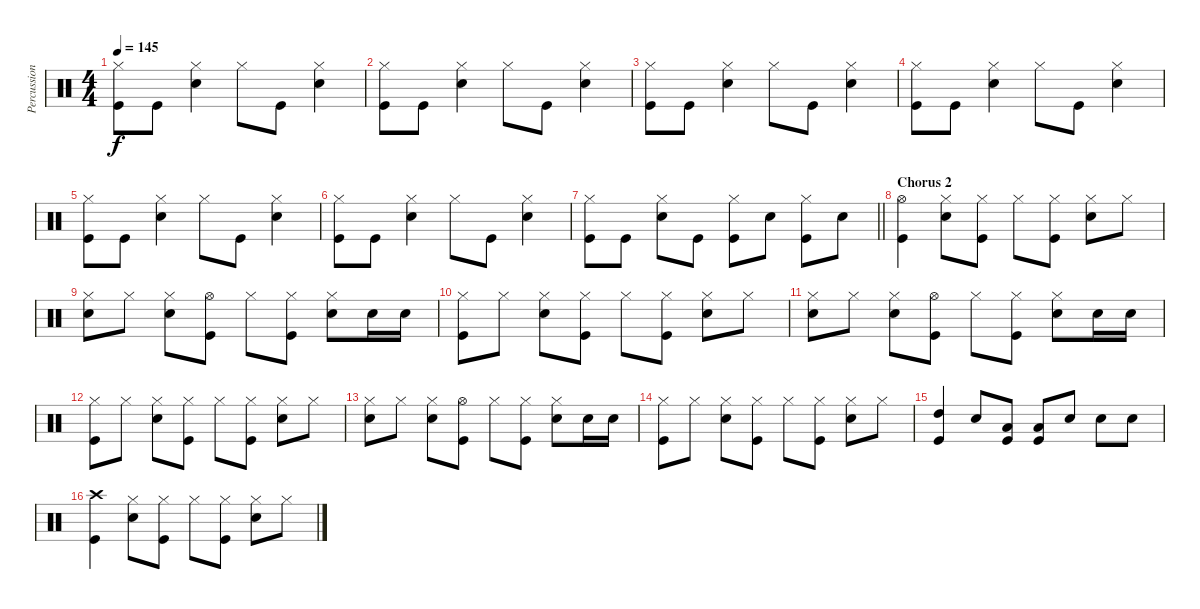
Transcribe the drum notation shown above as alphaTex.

\track ("Percussion" "Percussion") {instrument percussion}
\staff {score}
\articulation defaults
\ts (4 4)
\tempo 145
\clef neutral
\ks c
("Kick (hit)" "Hi-Hat (closed)").8{dy f} "Kick (hit)".8 ("Hi-Hat (closed)" "Snare (hit) 2").4 "Hi-Hat (closed)".8 "Kick (hit)".8 ("Hi-Hat (closed)" "Snare (hit) 2").4 |
("Kick (hit)" "Hi-Hat (closed)").8 "Kick (hit)".8 ("Hi-Hat (closed)" "Snare (hit) 2").4 "Hi-Hat (closed)".8 "Kick (hit)".8 ("Hi-Hat (closed)" "Snare (hit) 2").4 |
("Kick (hit)" "Hi-Hat (closed)").8 "Kick (hit)".8 ("Hi-Hat (closed)" "Snare (hit) 2").4 "Hi-Hat (closed)".8 "Kick (hit)".8 ("Hi-Hat (closed)" "Snare (hit) 2").4 |
("Kick (hit)" "Hi-Hat (closed)").8 "Kick (hit)".8 ("Hi-Hat (closed)" "Snare (hit) 2").4 "Hi-Hat (closed)".8 "Kick (hit)".8 ("Hi-Hat (closed)" "Snare (hit) 2").4 |
("Kick (hit)" "Hi-Hat (closed)").8 "Kick (hit)".8 ("Hi-Hat (closed)" "Snare (hit) 2").4 "Hi-Hat (closed)".8 "Kick (hit)".8 ("Hi-Hat (closed)" "Snare (hit) 2").4 |
("Kick (hit)" "Hi-Hat (closed)").8 "Kick (hit)".8 ("Hi-Hat (closed)" "Snare (hit) 2").4 "Hi-Hat (closed)".8 "Kick (hit)".8 ("Hi-Hat (closed)" "Snare (hit) 2").4 |
\barLineRight lightlight
("Kick (hit)" "Hi-Hat (closed)").8 "Kick (hit)".8 ("Hi-Hat (closed)" "Snare (hit) 2").8 "Kick (hit)".8 ("Kick (hit)" "Hi-Hat (closed)").8 "Snare (hit) 2".8 ("Kick (hit)" "Hi-Hat (closed)").8 "Snare (hit) 2".8 |
\section ("" "Chorus 2")
("Kick (hit)" "Hi-Hat (open)").4 ("Hi-Hat (closed)" "Snare (hit) 2").8 ("Kick (hit)" "Hi-Hat (closed)").8 "Hi-Hat (closed)".8 ("Kick (hit)" "Hi-Hat (closed)").8 ("Hi-Hat (closed)" "Snare (hit) 2").8 "Hi-Hat (closed)".8 |
("Hi-Hat (closed)" "Snare (hit) 2").8 "Hi-Hat (closed)".8 ("Hi-Hat (closed)" "Snare (hit) 2").8 ("Kick (hit)" "Hi-Hat (open)").8 "Hi-Hat (closed)".8 ("Kick (hit)" "Hi-Hat (closed)").8 ("Hi-Hat (closed)" "Snare (hit) 2").8 "Snare (hit) 2".16 "Snare (hit) 2".16 |
("Kick (hit)" "Hi-Hat (closed)").8 "Hi-Hat (closed)".8 ("Hi-Hat (closed)" "Snare (hit) 2").8 ("Kick (hit)" "Hi-Hat (closed)").8 "Hi-Hat (closed)".8 ("Kick (hit)" "Hi-Hat (closed)").8 ("Hi-Hat (closed)" "Snare (hit) 2").8 "Hi-Hat (closed)".8 |
("Hi-Hat (closed)" "Snare (hit) 2").8 "Hi-Hat (closed)".8 ("Hi-Hat (closed)" "Snare (hit) 2").8 ("Kick (hit)" "Hi-Hat (open)").8 "Hi-Hat (closed)".8 ("Kick (hit)" "Hi-Hat (closed)").8 ("Hi-Hat (closed)" "Snare (hit) 2").8 "Snare (hit) 2".16 "Snare (hit) 2".16 |
("Kick (hit)" "Hi-Hat (closed)").8 "Hi-Hat (closed)".8 ("Hi-Hat (closed)" "Snare (hit) 2").8 ("Kick (hit)" "Hi-Hat (closed)").8 "Hi-Hat (closed)".8 ("Kick (hit)" "Hi-Hat (closed)").8 ("Hi-Hat (closed)" "Snare (hit) 2").8 "Hi-Hat (closed)".8 |
("Hi-Hat (closed)" "Snare (hit) 2").8 "Hi-Hat (closed)".8 ("Hi-Hat (closed)" "Snare (hit) 2").8 ("Kick (hit)" "Hi-Hat (open)").8 "Hi-Hat (closed)".8 ("Kick (hit)" "Hi-Hat (closed)").8 ("Hi-Hat (closed)" "Snare (hit) 2").8 "Snare (hit) 2".16 "Snare (hit) 2".16 |
("Kick (hit)" "Hi-Hat (closed)").8 "Hi-Hat (closed)".8 ("Hi-Hat (closed)" "Snare (hit) 2").8 ("Kick (hit)" "Hi-Hat (closed)").8 "Hi-Hat (closed)".8 ("Kick (hit)" "Hi-Hat (closed)").8 ("Hi-Hat (closed)" "Snare (hit) 2").8 "Hi-Hat (closed)".8 |
("Kick (hit)" "High Tom (hit)").4 "Snare (hit) 2".8 ("Low Tom (hit)" "Kick (hit)").8 ("Low Tom (hit)" "Kick (hit)").8 "Snare (hit) 2".8 "Snare (hit) 2".8 "Snare (hit) 2".8 |
("Kick (hit)" "Crash high (hit)").4 ("Hi-Hat (closed)" "Snare (hit) 2").8 ("Kick (hit)" "Hi-Hat (closed)").8 "Hi-Hat (closed)".8 ("Kick (hit)" "Hi-Hat (closed)").8 ("Hi-Hat (closed)" "Snare (hit) 2").8 "Hi-Hat (closed)".8
